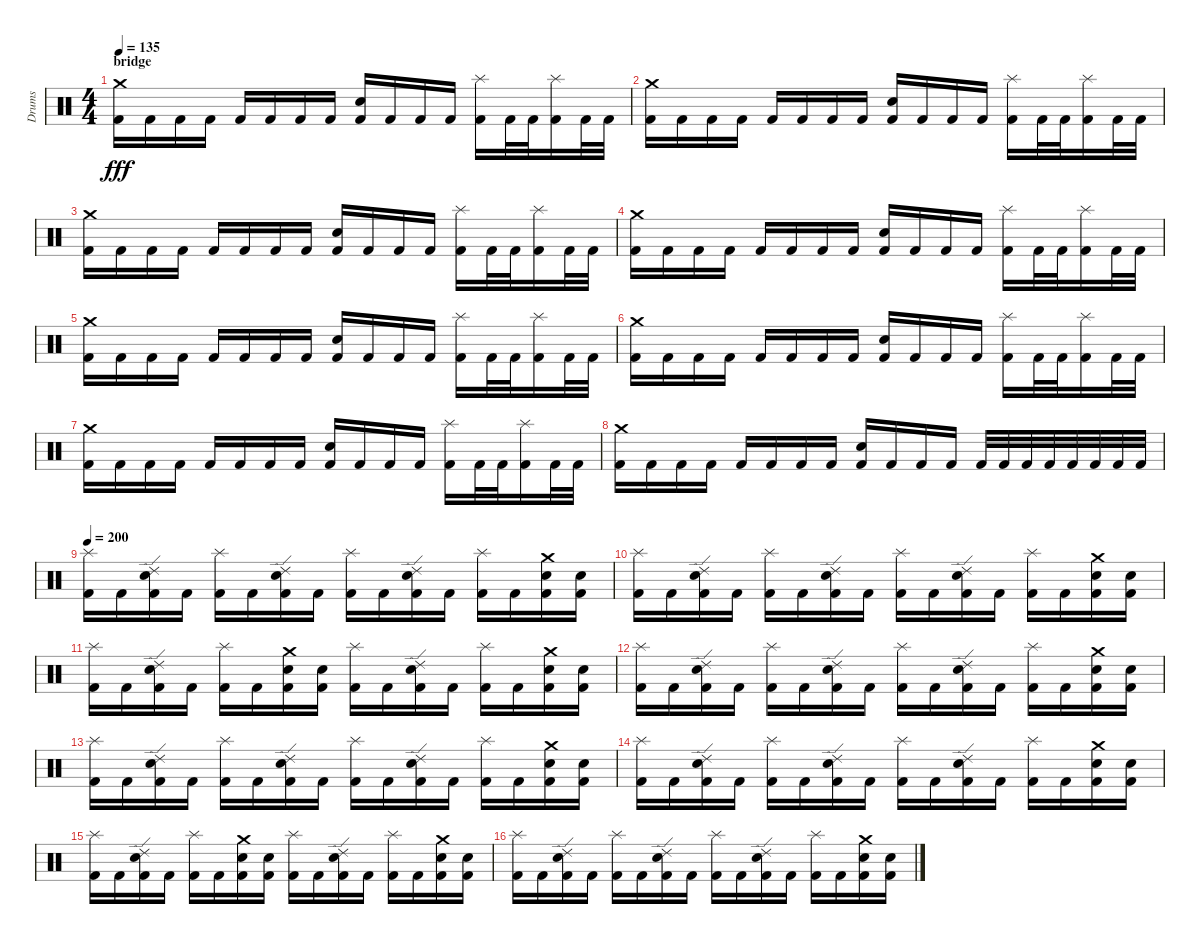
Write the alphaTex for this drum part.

\track ("Drums" "Drums") {instrument percussion}
\staff {score}
\articulation defaults
\ts (4 4)
\section ("" "bridge")
\tempo 135
\clef neutral
\ks c
("Crash medium (hit)" "Kick (hit) 2").16{dy fff} "Kick (hit) 2".16 "Kick (hit) 2".16 "Kick (hit) 2".16 "Kick (hit) 2".16 "Kick (hit) 2".16 "Kick (hit) 2".16 "Kick (hit) 2".16 ("Electric Snare (hit)" "Kick (hit) 2").16 "Kick (hit) 2".16 "Kick (hit) 2".16 "Kick (hit) 2".16 ("Splash (hit)" "Kick (hit) 2").16 "Kick (hit) 2".32 "Kick (hit) 2".32 ("Splash (hit)" "Kick (hit) 2").16 "Kick (hit) 2".32 "Kick (hit) 2".32 |
("Crash medium (hit)" "Kick (hit) 2").16 "Kick (hit) 2".16 "Kick (hit) 2".16 "Kick (hit) 2".16 "Kick (hit) 2".16 "Kick (hit) 2".16 "Kick (hit) 2".16 "Kick (hit) 2".16 ("Electric Snare (hit)" "Kick (hit) 2").16 "Kick (hit) 2".16 "Kick (hit) 2".16 "Kick (hit) 2".16 ("Splash (hit)" "Kick (hit) 2").16 "Kick (hit) 2".32 "Kick (hit) 2".32 ("Splash (hit)" "Kick (hit) 2").16 "Kick (hit) 2".32 "Kick (hit) 2".32 |
("Crash medium (hit)" "Kick (hit) 2").16 "Kick (hit) 2".16 "Kick (hit) 2".16 "Kick (hit) 2".16 "Kick (hit) 2".16 "Kick (hit) 2".16 "Kick (hit) 2".16 "Kick (hit) 2".16 ("Electric Snare (hit)" "Kick (hit) 2").16 "Kick (hit) 2".16 "Kick (hit) 2".16 "Kick (hit) 2".16 ("Splash (hit)" "Kick (hit) 2").16 "Kick (hit) 2".32 "Kick (hit) 2".32 ("Splash (hit)" "Kick (hit) 2").16 "Kick (hit) 2".32 "Kick (hit) 2".32 |
("Crash medium (hit)" "Kick (hit) 2").16 "Kick (hit) 2".16 "Kick (hit) 2".16 "Kick (hit) 2".16 "Kick (hit) 2".16 "Kick (hit) 2".16 "Kick (hit) 2".16 "Kick (hit) 2".16 ("Electric Snare (hit)" "Kick (hit) 2").16 "Kick (hit) 2".16 "Kick (hit) 2".16 "Kick (hit) 2".16 ("Splash (hit)" "Kick (hit) 2").16 "Kick (hit) 2".32 "Kick (hit) 2".32 ("Splash (hit)" "Kick (hit) 2").16 "Kick (hit) 2".32 "Kick (hit) 2".32 |
("Crash medium (hit)" "Kick (hit) 2").16 "Kick (hit) 2".16 "Kick (hit) 2".16 "Kick (hit) 2".16 "Kick (hit) 2".16 "Kick (hit) 2".16 "Kick (hit) 2".16 "Kick (hit) 2".16 ("Electric Snare (hit)" "Kick (hit) 2").16 "Kick (hit) 2".16 "Kick (hit) 2".16 "Kick (hit) 2".16 ("Splash (hit)" "Kick (hit) 2").16 "Kick (hit) 2".32 "Kick (hit) 2".32 ("Splash (hit)" "Kick (hit) 2").16 "Kick (hit) 2".32 "Kick (hit) 2".32 |
("Crash medium (hit)" "Kick (hit) 2").16 "Kick (hit) 2".16 "Kick (hit) 2".16 "Kick (hit) 2".16 "Kick (hit) 2".16 "Kick (hit) 2".16 "Kick (hit) 2".16 "Kick (hit) 2".16 ("Electric Snare (hit)" "Kick (hit) 2").16 "Kick (hit) 2".16 "Kick (hit) 2".16 "Kick (hit) 2".16 ("Splash (hit)" "Kick (hit) 2").16 "Kick (hit) 2".32 "Kick (hit) 2".32 ("Splash (hit)" "Kick (hit) 2").16 "Kick (hit) 2".32 "Kick (hit) 2".32 |
("Crash medium (hit)" "Kick (hit) 2").16 "Kick (hit) 2".16 "Kick (hit) 2".16 "Kick (hit) 2".16 "Kick (hit) 2".16 "Kick (hit) 2".16 "Kick (hit) 2".16 "Kick (hit) 2".16 ("Electric Snare (hit)" "Kick (hit) 2").16 "Kick (hit) 2".16 "Kick (hit) 2".16 "Kick (hit) 2".16 ("Splash (hit)" "Kick (hit) 2").16 "Kick (hit) 2".32 "Kick (hit) 2".32 ("Splash (hit)" "Kick (hit) 2").16 "Kick (hit) 2".32 "Kick (hit) 2".32 |
("Crash medium (hit)" "Kick (hit) 2").16 "Kick (hit) 2".16 "Kick (hit) 2".16 "Kick (hit) 2".16 "Kick (hit) 2".16 "Kick (hit) 2".16 "Kick (hit) 2".16 "Kick (hit) 2".16 ("Electric Snare (hit)" "Kick (hit) 2").16 "Kick (hit) 2".16 "Kick (hit) 2".16 "Kick (hit) 2".16 "Kick (hit) 2".32 "Kick (hit) 2".32 "Kick (hit) 2".32 "Kick (hit) 2".32 "Kick (hit) 2".32 "Kick (hit) 2".32 "Kick (hit) 2".32 "Kick (hit) 2".32 |
\tempo 200
("Kick (hit) 2" "Splash (hit)").16 "Kick (hit) 2".16 ("Kick (hit) 2" "Electric Snare (hit)" "Ride (edge) 2").16 "Kick (hit) 2".16 ("Kick (hit) 2" "Splash (hit)").16 "Kick (hit) 2".16 ("Kick (hit) 2" "Electric Snare (hit)" "Ride (edge) 2").16 "Kick (hit) 2".16 ("Kick (hit) 2" "Splash (hit)").16 "Kick (hit) 2".16 ("Kick (hit) 2" "Electric Snare (hit)" "Ride (edge) 2").16 "Kick (hit) 2".16 ("Kick (hit) 2" "Splash (hit)").16 "Kick (hit) 2".16 ("Kick (hit) 2" "Electric Snare (hit)" "Crash medium (hit)").16 ("Kick (hit) 2" "Electric Snare (hit)").16 |
("Kick (hit) 2" "Splash (hit)").16 "Kick (hit) 2".16 ("Kick (hit) 2" "Electric Snare (hit)" "Ride (edge) 2").16 "Kick (hit) 2".16 ("Kick (hit) 2" "Splash (hit)").16 "Kick (hit) 2".16 ("Kick (hit) 2" "Electric Snare (hit)" "Ride (edge) 2").16 "Kick (hit) 2".16 ("Kick (hit) 2" "Splash (hit)").16 "Kick (hit) 2".16 ("Kick (hit) 2" "Electric Snare (hit)" "Ride (edge) 2").16 "Kick (hit) 2".16 ("Kick (hit) 2" "Splash (hit)").16 "Kick (hit) 2".16 ("Kick (hit) 2" "Electric Snare (hit)" "Crash medium (hit)").16 ("Kick (hit) 2" "Electric Snare (hit)").16 |
("Kick (hit) 2" "Splash (hit)").16 "Kick (hit) 2".16 ("Kick (hit) 2" "Electric Snare (hit)" "Ride (edge) 2").16 "Kick (hit) 2".16 ("Kick (hit) 2" "Splash (hit)").16 "Kick (hit) 2".16 ("Kick (hit) 2" "Electric Snare (hit)" "Crash medium (hit)").16 ("Kick (hit) 2" "Electric Snare (hit)").16 ("Kick (hit) 2" "Splash (hit)").16 "Kick (hit) 2".16 ("Kick (hit) 2" "Electric Snare (hit)" "Ride (edge) 2").16 "Kick (hit) 2".16 ("Kick (hit) 2" "Splash (hit)").16 "Kick (hit) 2".16 ("Kick (hit) 2" "Electric Snare (hit)" "Crash medium (hit)").16 ("Kick (hit) 2" "Electric Snare (hit)").16 |
("Kick (hit) 2" "Splash (hit)").16 "Kick (hit) 2".16 ("Kick (hit) 2" "Electric Snare (hit)" "Ride (edge) 2").16 "Kick (hit) 2".16 ("Kick (hit) 2" "Splash (hit)").16 "Kick (hit) 2".16 ("Kick (hit) 2" "Electric Snare (hit)" "Ride (edge) 2").16 "Kick (hit) 2".16 ("Kick (hit) 2" "Splash (hit)").16 "Kick (hit) 2".16 ("Kick (hit) 2" "Electric Snare (hit)" "Ride (edge) 2").16 "Kick (hit) 2".16 ("Kick (hit) 2" "Splash (hit)").16 "Kick (hit) 2".16 ("Kick (hit) 2" "Electric Snare (hit)" "Crash medium (hit)").16 ("Kick (hit) 2" "Electric Snare (hit)").16 |
("Kick (hit) 2" "Splash (hit)").16 "Kick (hit) 2".16 ("Kick (hit) 2" "Electric Snare (hit)" "Ride (edge) 2").16 "Kick (hit) 2".16 ("Kick (hit) 2" "Splash (hit)").16 "Kick (hit) 2".16 ("Kick (hit) 2" "Electric Snare (hit)" "Ride (edge) 2").16 "Kick (hit) 2".16 ("Kick (hit) 2" "Splash (hit)").16 "Kick (hit) 2".16 ("Kick (hit) 2" "Electric Snare (hit)" "Ride (edge) 2").16 "Kick (hit) 2".16 ("Kick (hit) 2" "Splash (hit)").16 "Kick (hit) 2".16 ("Kick (hit) 2" "Electric Snare (hit)" "Crash medium (hit)").16 ("Kick (hit) 2" "Electric Snare (hit)").16 |
("Kick (hit) 2" "Splash (hit)").16 "Kick (hit) 2".16 ("Kick (hit) 2" "Electric Snare (hit)" "Ride (edge) 2").16 "Kick (hit) 2".16 ("Kick (hit) 2" "Splash (hit)").16 "Kick (hit) 2".16 ("Kick (hit) 2" "Electric Snare (hit)" "Ride (edge) 2").16 "Kick (hit) 2".16 ("Kick (hit) 2" "Splash (hit)").16 "Kick (hit) 2".16 ("Kick (hit) 2" "Electric Snare (hit)" "Ride (edge) 2").16 "Kick (hit) 2".16 ("Kick (hit) 2" "Splash (hit)").16 "Kick (hit) 2".16 ("Kick (hit) 2" "Electric Snare (hit)" "Crash medium (hit)").16 ("Kick (hit) 2" "Electric Snare (hit)").16 |
("Kick (hit) 2" "Splash (hit)").16 "Kick (hit) 2".16 ("Kick (hit) 2" "Electric Snare (hit)" "Ride (edge) 2").16 "Kick (hit) 2".16 ("Kick (hit) 2" "Splash (hit)").16 "Kick (hit) 2".16 ("Kick (hit) 2" "Electric Snare (hit)" "Crash medium (hit)").16 ("Kick (hit) 2" "Electric Snare (hit)").16 ("Kick (hit) 2" "Splash (hit)").16 "Kick (hit) 2".16 ("Kick (hit) 2" "Electric Snare (hit)" "Ride (edge) 2").16 "Kick (hit) 2".16 ("Kick (hit) 2" "Splash (hit)").16 "Kick (hit) 2".16 ("Kick (hit) 2" "Electric Snare (hit)" "Crash medium (hit)").16 ("Kick (hit) 2" "Electric Snare (hit)").16 |
("Kick (hit) 2" "Splash (hit)").16 "Kick (hit) 2".16 ("Kick (hit) 2" "Electric Snare (hit)" "Ride (edge) 2").16 "Kick (hit) 2".16 ("Kick (hit) 2" "Splash (hit)").16 "Kick (hit) 2".16 ("Kick (hit) 2" "Electric Snare (hit)" "Ride (edge) 2").16 "Kick (hit) 2".16 ("Kick (hit) 2" "Splash (hit)").16 "Kick (hit) 2".16 ("Kick (hit) 2" "Electric Snare (hit)" "Ride (edge) 2").16 "Kick (hit) 2".16 ("Kick (hit) 2" "Splash (hit)").16 "Kick (hit) 2".16 ("Kick (hit) 2" "Electric Snare (hit)" "Crash medium (hit)").16 ("Kick (hit) 2" "Electric Snare (hit)").16
